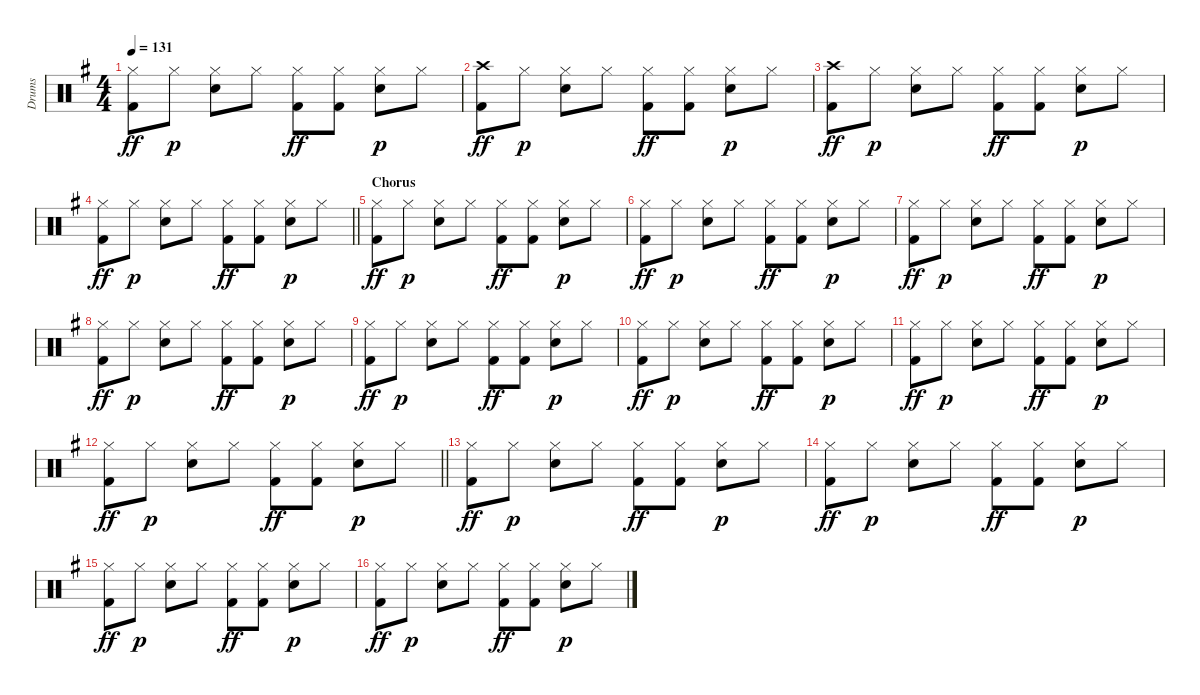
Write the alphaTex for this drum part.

\track ("Drums" "Drums") {instrument percussion}
\staff {score}
\articulation defaults
\ts (4 4)
\tempo 131
\clef neutral
\ks g
("Hi-Hat (closed)" "Kick (hit) 2").8{dy ff} "Hi-Hat (closed)".8{dy p} ("Hi-Hat (closed)" "Snare (hit) 2").8 "Hi-Hat (closed)".8 ("Hi-Hat (closed)" "Kick (hit) 2").8{dy ff} ("Hi-Hat (closed)" "Kick (hit) 2").8 ("Hi-Hat (closed)" "Snare (hit) 2").8{dy p} "Hi-Hat (closed)".8 |
("Crash high (hit)" "Kick (hit) 2").8{dy ff} "Hi-Hat (closed)".8{dy p} ("Hi-Hat (closed)" "Snare (hit) 2").8 "Hi-Hat (closed)".8 ("Hi-Hat (closed)" "Kick (hit) 2").8{dy ff} ("Hi-Hat (closed)" "Kick (hit) 2").8 ("Hi-Hat (closed)" "Snare (hit) 2").8{dy p} "Hi-Hat (closed)".8 |
("Crash high (hit)" "Kick (hit) 2").8{dy ff} "Hi-Hat (closed)".8{dy p} ("Hi-Hat (closed)" "Snare (hit) 2").8 "Hi-Hat (closed)".8 ("Hi-Hat (closed)" "Kick (hit) 2").8{dy ff} ("Hi-Hat (closed)" "Kick (hit) 2").8 ("Hi-Hat (closed)" "Snare (hit) 2").8{dy p} "Hi-Hat (closed)".8 |
\barLineRight lightlight
("Hi-Hat (closed)" "Kick (hit) 2").8{dy ff} "Hi-Hat (closed)".8{dy p} ("Hi-Hat (closed)" "Snare (hit) 2").8 "Hi-Hat (closed)".8 ("Hi-Hat (closed)" "Kick (hit) 2").8{dy ff} ("Hi-Hat (closed)" "Kick (hit) 2").8 ("Hi-Hat (closed)" "Snare (hit) 2").8{dy p} "Hi-Hat (closed)".8 |
\section ("" "Chorus")
("Hi-Hat (closed)" "Kick (hit) 2").8{dy ff} "Hi-Hat (closed)".8{dy p} ("Hi-Hat (closed)" "Snare (hit) 2").8 "Hi-Hat (closed)".8 ("Hi-Hat (closed)" "Kick (hit) 2").8{dy ff} ("Hi-Hat (closed)" "Kick (hit) 2").8 ("Hi-Hat (closed)" "Snare (hit) 2").8{dy p} "Hi-Hat (closed)".8 |
("Hi-Hat (closed)" "Kick (hit) 2").8{dy ff} "Hi-Hat (closed)".8{dy p} ("Hi-Hat (closed)" "Snare (hit) 2").8 "Hi-Hat (closed)".8 ("Hi-Hat (closed)" "Kick (hit) 2").8{dy ff} ("Hi-Hat (closed)" "Kick (hit) 2").8 ("Hi-Hat (closed)" "Snare (hit) 2").8{dy p} "Hi-Hat (closed)".8 |
("Hi-Hat (closed)" "Kick (hit) 2").8{dy ff} "Hi-Hat (closed)".8{dy p} ("Hi-Hat (closed)" "Snare (hit) 2").8 "Hi-Hat (closed)".8 ("Hi-Hat (closed)" "Kick (hit) 2").8{dy ff} ("Hi-Hat (closed)" "Kick (hit) 2").8 ("Hi-Hat (closed)" "Snare (hit) 2").8{dy p} "Hi-Hat (closed)".8 |
("Hi-Hat (closed)" "Kick (hit) 2").8{dy ff} "Hi-Hat (closed)".8{dy p} ("Hi-Hat (closed)" "Snare (hit) 2").8 "Hi-Hat (closed)".8 ("Hi-Hat (closed)" "Kick (hit) 2").8{dy ff} ("Hi-Hat (closed)" "Kick (hit) 2").8 ("Hi-Hat (closed)" "Snare (hit) 2").8{dy p} "Hi-Hat (closed)".8 |
("Hi-Hat (closed)" "Kick (hit) 2").8{dy ff} "Hi-Hat (closed)".8{dy p} ("Hi-Hat (closed)" "Snare (hit) 2").8 "Hi-Hat (closed)".8 ("Hi-Hat (closed)" "Kick (hit) 2").8{dy ff} ("Hi-Hat (closed)" "Kick (hit) 2").8 ("Hi-Hat (closed)" "Snare (hit) 2").8{dy p} "Hi-Hat (closed)".8 |
("Hi-Hat (closed)" "Kick (hit) 2").8{dy ff} "Hi-Hat (closed)".8{dy p} ("Hi-Hat (closed)" "Snare (hit) 2").8 "Hi-Hat (closed)".8 ("Hi-Hat (closed)" "Kick (hit) 2").8{dy ff} ("Hi-Hat (closed)" "Kick (hit) 2").8 ("Hi-Hat (closed)" "Snare (hit) 2").8{dy p} "Hi-Hat (closed)".8 |
("Hi-Hat (closed)" "Kick (hit) 2").8{dy ff} "Hi-Hat (closed)".8{dy p} ("Hi-Hat (closed)" "Snare (hit) 2").8 "Hi-Hat (closed)".8 ("Hi-Hat (closed)" "Kick (hit) 2").8{dy ff} ("Hi-Hat (closed)" "Kick (hit) 2").8 ("Hi-Hat (closed)" "Snare (hit) 2").8{dy p} "Hi-Hat (closed)".8 |
\barLineRight lightlight
("Hi-Hat (closed)" "Kick (hit) 2").8{dy ff} "Hi-Hat (closed)".8{dy p} ("Hi-Hat (closed)" "Snare (hit) 2").8 "Hi-Hat (closed)".8 ("Hi-Hat (closed)" "Kick (hit) 2").8{dy ff} ("Hi-Hat (closed)" "Kick (hit) 2").8 ("Hi-Hat (closed)" "Snare (hit) 2").8{dy p} "Hi-Hat (closed)".8 |
("Hi-Hat (closed)" "Kick (hit) 2").8{dy ff} "Hi-Hat (closed)".8{dy p} ("Hi-Hat (closed)" "Snare (hit) 2").8 "Hi-Hat (closed)".8 ("Hi-Hat (closed)" "Kick (hit) 2").8{dy ff} ("Hi-Hat (closed)" "Kick (hit) 2").8 ("Hi-Hat (closed)" "Snare (hit) 2").8{dy p} "Hi-Hat (closed)".8 |
("Hi-Hat (closed)" "Kick (hit) 2").8{dy ff} "Hi-Hat (closed)".8{dy p} ("Hi-Hat (closed)" "Snare (hit) 2").8 "Hi-Hat (closed)".8 ("Hi-Hat (closed)" "Kick (hit) 2").8{dy ff} ("Hi-Hat (closed)" "Kick (hit) 2").8 ("Hi-Hat (closed)" "Snare (hit) 2").8{dy p} "Hi-Hat (closed)".8 |
("Hi-Hat (closed)" "Kick (hit) 2").8{dy ff} "Hi-Hat (closed)".8{dy p} ("Hi-Hat (closed)" "Snare (hit) 2").8 "Hi-Hat (closed)".8 ("Hi-Hat (closed)" "Kick (hit) 2").8{dy ff} ("Hi-Hat (closed)" "Kick (hit) 2").8 ("Hi-Hat (closed)" "Snare (hit) 2").8{dy p} "Hi-Hat (closed)".8 |
("Hi-Hat (closed)" "Kick (hit) 2").8{dy ff} "Hi-Hat (closed)".8{dy p} ("Hi-Hat (closed)" "Snare (hit) 2").8 "Hi-Hat (closed)".8 ("Hi-Hat (closed)" "Kick (hit) 2").8{dy ff} ("Hi-Hat (closed)" "Kick (hit) 2").8 ("Hi-Hat (closed)" "Snare (hit) 2").8{dy p} "Hi-Hat (closed)".8
